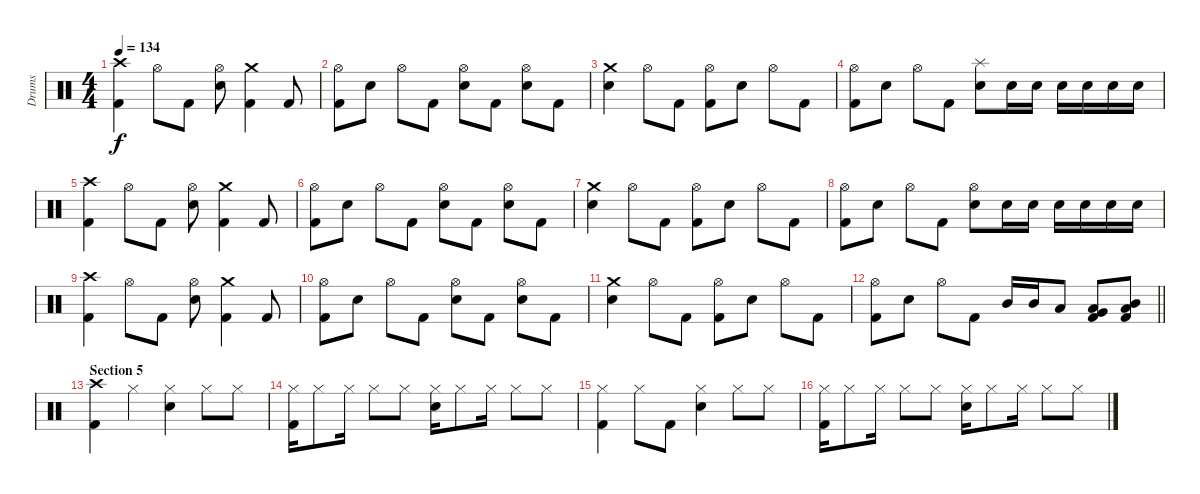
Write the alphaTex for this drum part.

\track ("Drums" "Drums") {instrument percussion}
\staff {score}
\articulation defaults
\ts (4 4)
\tempo 134
\clef neutral
\ks c
("Crash high (hit)" "Kick (hit) 2").4{dy f} "Hi-Hat (open)".8 "Kick (hit) 2".8 ("Hi-Hat (open)" "Electric Snare (hit)").8 ("Crash medium (hit)" "Kick (hit) 2").4 "Kick (hit) 2".8 |
("Hi-Hat (open)" "Kick (hit) 2").8 "Electric Snare (hit)".8 "Hi-Hat (open)".8 "Kick (hit) 2".8 ("Hi-Hat (open)" "Electric Snare (hit)").8 "Kick (hit) 2".8 ("Hi-Hat (open)" "Electric Snare (hit)").8 "Kick (hit) 2".8 |
("Crash medium (hit)" "Electric Snare (hit)").4 "Hi-Hat (open)".8 "Kick (hit) 2".8 ("Hi-Hat (open)" "Kick (hit) 2").8 "Electric Snare (hit)".8 "Hi-Hat (open)".8 "Kick (hit) 2".8 |
("Hi-Hat (open)" "Kick (hit) 2").8 "Electric Snare (hit)".8 "Hi-Hat (open)".8 "Kick (hit) 2".8 ("Splash (hit)" "Electric Snare (hit)").8 "Electric Snare (hit)".16 "Electric Snare (hit)".16 "Electric Snare (hit)".16 "Electric Snare (hit)".16 "Electric Snare (hit)".16 "Electric Snare (hit)".16 |
("Crash high (hit)" "Kick (hit) 2").4 "Hi-Hat (open)".8 "Kick (hit) 2".8 ("Hi-Hat (open)" "Electric Snare (hit)").8 ("Crash medium (hit)" "Kick (hit) 2").4 "Kick (hit) 2".8 |
("Hi-Hat (open)" "Kick (hit) 2").8 "Electric Snare (hit)".8 "Hi-Hat (open)".8 "Kick (hit) 2".8 ("Hi-Hat (open)" "Electric Snare (hit)").8 "Kick (hit) 2".8 ("Hi-Hat (open)" "Electric Snare (hit)").8 "Kick (hit) 2".8 |
("Crash medium (hit)" "Electric Snare (hit)").4 "Hi-Hat (open)".8 "Kick (hit) 2".8 ("Hi-Hat (open)" "Kick (hit) 2").8 "Electric Snare (hit)".8 "Hi-Hat (open)".8 "Kick (hit) 2".8 |
("Hi-Hat (open)" "Kick (hit) 2").8 "Electric Snare (hit)".8 "Hi-Hat (open)".8 "Kick (hit) 2".8 ("Hi-Hat (open)" "Electric Snare (hit)").8 "Electric Snare (hit)".16 "Electric Snare (hit)".16 "Electric Snare (hit)".16 "Electric Snare (hit)".16 "Electric Snare (hit)".16 "Electric Snare (hit)".16 |
("Crash high (hit)" "Kick (hit) 2").4 "Hi-Hat (open)".8 "Kick (hit) 2".8 ("Hi-Hat (open)" "Electric Snare (hit)").8 ("Crash medium (hit)" "Kick (hit) 2").4 "Kick (hit) 2".8 |
("Hi-Hat (open)" "Kick (hit) 2").8 "Electric Snare (hit)".8 "Hi-Hat (open)".8 "Kick (hit) 2".8 ("Hi-Hat (open)" "Electric Snare (hit)").8 "Kick (hit) 2".8 ("Hi-Hat (open)" "Electric Snare (hit)").8 "Kick (hit) 2".8 |
("Crash medium (hit)" "Electric Snare (hit)").4 "Hi-Hat (open)".8 "Kick (hit) 2".8 ("Hi-Hat (open)" "Kick (hit) 2").8 "Electric Snare (hit)".8 "Hi-Hat (open)".8 "Kick (hit) 2".8 |
\barLineRight lightlight
("Hi-Hat (open)" "Kick (hit) 2").8 "Electric Snare (hit)".8 "Hi-Hat (open)".8 "Kick (hit) 2".8 "Mid Tom (hit)".16 "Mid Tom (hit)".16 "Low Tom (hit)".8 ("Low Tom (hit)" "Very Low Tom (hit)" "Kick (hit) 2").8 ("Mid Tom (hit)" "Low Tom (hit)" "Kick (hit) 2").8 |
\section ("" "Section 5")
("Crash high (hit)" "Kick (hit) 2").4 "Hi-Hat (closed)".4 ("Hi-Hat (closed)" "Electric Snare (hit)").4 "Hi-Hat (closed)".8 "Hi-Hat (closed)".8 |
("Hi-Hat (closed)" "Kick (hit) 2").16 "Hi-Hat (closed)".8 "Hi-Hat (closed)".16 "Hi-Hat (closed)".8 "Hi-Hat (closed)".8 ("Hi-Hat (closed)" "Electric Snare (hit)").16 "Hi-Hat (closed)".8 "Hi-Hat (closed)".16 "Hi-Hat (closed)".8 "Hi-Hat (closed)".8 |
("Hi-Hat (closed)" "Kick (hit) 2").4 "Hi-Hat (closed)".8 "Kick (hit) 2".8 ("Hi-Hat (closed)" "Electric Snare (hit)").4 "Hi-Hat (closed)".8 "Hi-Hat (closed)".8 |
("Hi-Hat (closed)" "Kick (hit) 2").16 "Hi-Hat (closed)".8 "Hi-Hat (closed)".16 "Hi-Hat (closed)".8 "Hi-Hat (closed)".8 ("Hi-Hat (closed)" "Electric Snare (hit)").16 "Hi-Hat (closed)".8 "Hi-Hat (closed)".16 "Hi-Hat (closed)".8 "Hi-Hat (closed)".8
